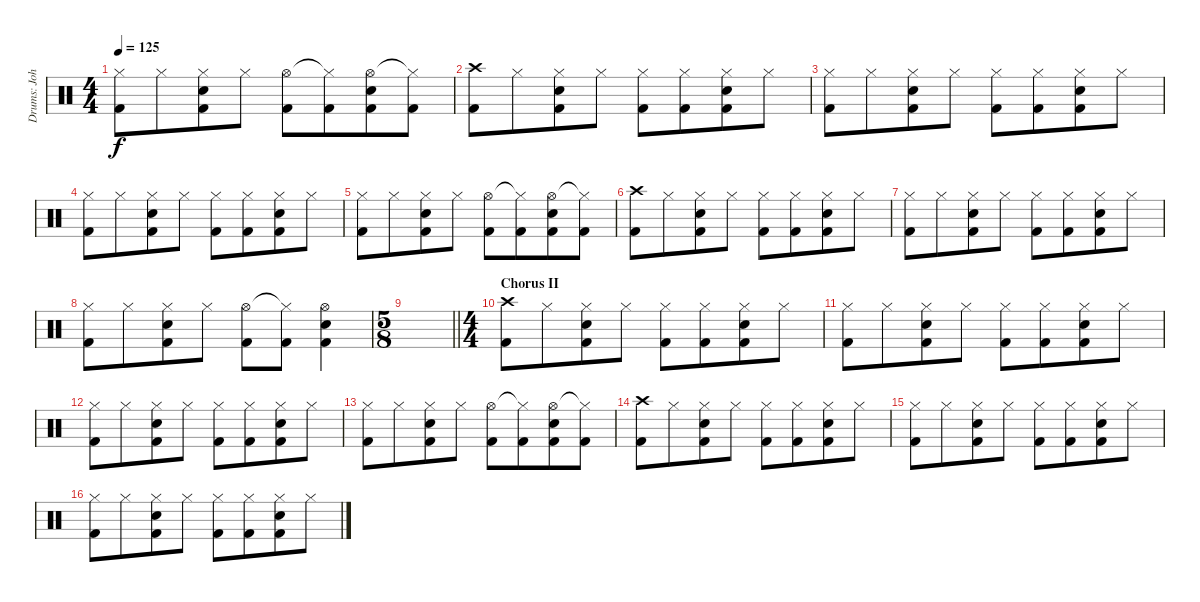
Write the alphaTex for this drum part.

\track ("Drums: John" "Drums: Joh") {instrument percussion}
\staff {score}
\articulation defaults
\ts (4 4)
\tempo 125
\clef neutral
\ks c
("Hi-Hat (closed)" "Kick (hit) 2").8{dy f} "Hi-Hat (closed)".8{beam merge} ("Hi-Hat (closed)" "Snare (hit) 2" "Kick (hit) 2").8 "Hi-Hat (closed)".8 ("Hi-Hat (open)" "Kick (hit) 2").8 ("Hi-Hat (closed)"{t} "Kick (hit) 2").8{beam merge} ("Hi-Hat (open)" "Snare (hit) 2" "Kick (hit) 2").8 ("Hi-Hat (closed)"{t} "Kick (hit) 2").8 |
("Crash high (hit)" "Kick (hit) 2").8 "Hi-Hat (closed)".8{beam merge} ("Hi-Hat (closed)" "Snare (hit) 2" "Kick (hit) 2").8 "Hi-Hat (closed)".8 ("Hi-Hat (closed)" "Kick (hit) 2").8 ("Hi-Hat (closed)" "Kick (hit) 2").8{beam merge} ("Hi-Hat (closed)" "Snare (hit) 2" "Kick (hit) 2").8 "Hi-Hat (closed)".8 |
("Hi-Hat (closed)" "Kick (hit) 2").8 "Hi-Hat (closed)".8{beam merge} ("Hi-Hat (closed)" "Snare (hit) 2" "Kick (hit) 2").8 "Hi-Hat (closed)".8 ("Hi-Hat (closed)" "Kick (hit) 2").8 ("Hi-Hat (closed)" "Kick (hit) 2").8{beam merge} ("Hi-Hat (closed)" "Snare (hit) 2" "Kick (hit) 2").8 "Hi-Hat (closed)".8 |
("Hi-Hat (closed)" "Kick (hit) 2").8 "Hi-Hat (closed)".8{beam merge} ("Hi-Hat (closed)" "Snare (hit) 2" "Kick (hit) 2").8 "Hi-Hat (closed)".8 ("Hi-Hat (closed)" "Kick (hit) 2").8 ("Hi-Hat (closed)" "Kick (hit) 2").8{beam merge} ("Hi-Hat (closed)" "Snare (hit) 2" "Kick (hit) 2").8 "Hi-Hat (closed)".8 |
("Hi-Hat (closed)" "Kick (hit) 2").8 "Hi-Hat (closed)".8{beam merge} ("Hi-Hat (closed)" "Snare (hit) 2" "Kick (hit) 2").8 "Hi-Hat (closed)".8 ("Hi-Hat (open)" "Kick (hit) 2").8 ("Hi-Hat (closed)"{t} "Kick (hit) 2").8{beam merge} ("Hi-Hat (open)" "Snare (hit) 2" "Kick (hit) 2").8 ("Hi-Hat (closed)"{t} "Kick (hit) 2").8 |
("Crash high (hit)" "Kick (hit) 2").8 "Hi-Hat (closed)".8{beam merge} ("Hi-Hat (closed)" "Snare (hit) 2" "Kick (hit) 2").8 "Hi-Hat (closed)".8 ("Hi-Hat (closed)" "Kick (hit) 2").8 ("Hi-Hat (closed)" "Kick (hit) 2").8{beam merge} ("Hi-Hat (closed)" "Snare (hit) 2" "Kick (hit) 2").8 "Hi-Hat (closed)".8 |
("Hi-Hat (closed)" "Kick (hit) 2").8 "Hi-Hat (closed)".8{beam merge} ("Hi-Hat (closed)" "Snare (hit) 2" "Kick (hit) 2").8 "Hi-Hat (closed)".8 ("Hi-Hat (closed)" "Kick (hit) 2").8 ("Hi-Hat (closed)" "Kick (hit) 2").8{beam merge} ("Hi-Hat (closed)" "Snare (hit) 2" "Kick (hit) 2").8 "Hi-Hat (closed)".8 |
("Hi-Hat (closed)" "Kick (hit) 2").8 "Hi-Hat (closed)".8{beam merge} ("Hi-Hat (closed)" "Snare (hit) 2" "Kick (hit) 2").8 "Hi-Hat (closed)".8 ("Hi-Hat (open)" "Kick (hit) 2").8 ("Hi-Hat (closed)"{t} "Kick (hit) 2").8{beam merge} ("Hi-Hat (open)" "Snare (hit) 2" "Kick (hit) 2").4 |
\ts (5 8)
\barLineRight lightlight
|
\ts (4 4)
\section ("" "Chorus II")
("Crash high (hit)" "Kick (hit) 2").8 "Hi-Hat (closed)".8{beam merge} ("Hi-Hat (closed)" "Snare (hit) 2" "Kick (hit) 2").8 "Hi-Hat (closed)".8 ("Hi-Hat (closed)" "Kick (hit) 2").8 ("Hi-Hat (closed)" "Kick (hit) 2").8{beam merge} ("Hi-Hat (closed)" "Snare (hit) 2" "Kick (hit) 2").8 "Hi-Hat (closed)".8 |
("Hi-Hat (closed)" "Kick (hit) 2").8 "Hi-Hat (closed)".8{beam merge} ("Hi-Hat (closed)" "Snare (hit) 2" "Kick (hit) 2").8 "Hi-Hat (closed)".8 ("Hi-Hat (closed)" "Kick (hit) 2").8 ("Hi-Hat (closed)" "Kick (hit) 2").8{beam merge} ("Hi-Hat (closed)" "Snare (hit) 2" "Kick (hit) 2").8 "Hi-Hat (closed)".8 |
("Hi-Hat (closed)" "Kick (hit) 2").8 "Hi-Hat (closed)".8{beam merge} ("Hi-Hat (closed)" "Snare (hit) 2" "Kick (hit) 2").8 "Hi-Hat (closed)".8 ("Hi-Hat (closed)" "Kick (hit) 2").8 ("Hi-Hat (closed)" "Kick (hit) 2").8{beam merge} ("Hi-Hat (closed)" "Snare (hit) 2" "Kick (hit) 2").8 "Hi-Hat (closed)".8 |
("Hi-Hat (closed)" "Kick (hit) 2").8 "Hi-Hat (closed)".8{beam merge} ("Hi-Hat (closed)" "Snare (hit) 2" "Kick (hit) 2").8 "Hi-Hat (closed)".8 ("Hi-Hat (open)" "Kick (hit) 2").8 ("Hi-Hat (closed)"{t} "Kick (hit) 2").8{beam merge} ("Hi-Hat (open)" "Snare (hit) 2" "Kick (hit) 2").8 ("Hi-Hat (closed)"{t} "Kick (hit) 2").8 |
("Crash high (hit)" "Kick (hit) 2").8 "Hi-Hat (closed)".8{beam merge} ("Hi-Hat (closed)" "Snare (hit) 2" "Kick (hit) 2").8 "Hi-Hat (closed)".8 ("Hi-Hat (closed)" "Kick (hit) 2").8 ("Hi-Hat (closed)" "Kick (hit) 2").8{beam merge} ("Hi-Hat (closed)" "Snare (hit) 2" "Kick (hit) 2").8 "Hi-Hat (closed)".8 |
("Hi-Hat (closed)" "Kick (hit) 2").8 "Hi-Hat (closed)".8{beam merge} ("Hi-Hat (closed)" "Snare (hit) 2" "Kick (hit) 2").8 "Hi-Hat (closed)".8 ("Hi-Hat (closed)" "Kick (hit) 2").8 ("Hi-Hat (closed)" "Kick (hit) 2").8{beam merge} ("Hi-Hat (closed)" "Snare (hit) 2" "Kick (hit) 2").8 "Hi-Hat (closed)".8 |
("Hi-Hat (closed)" "Kick (hit) 2").8 "Hi-Hat (closed)".8{beam merge} ("Hi-Hat (closed)" "Snare (hit) 2" "Kick (hit) 2").8 "Hi-Hat (closed)".8 ("Hi-Hat (closed)" "Kick (hit) 2").8 ("Hi-Hat (closed)" "Kick (hit) 2").8{beam merge} ("Hi-Hat (closed)" "Snare (hit) 2" "Kick (hit) 2").8 "Hi-Hat (closed)".8
